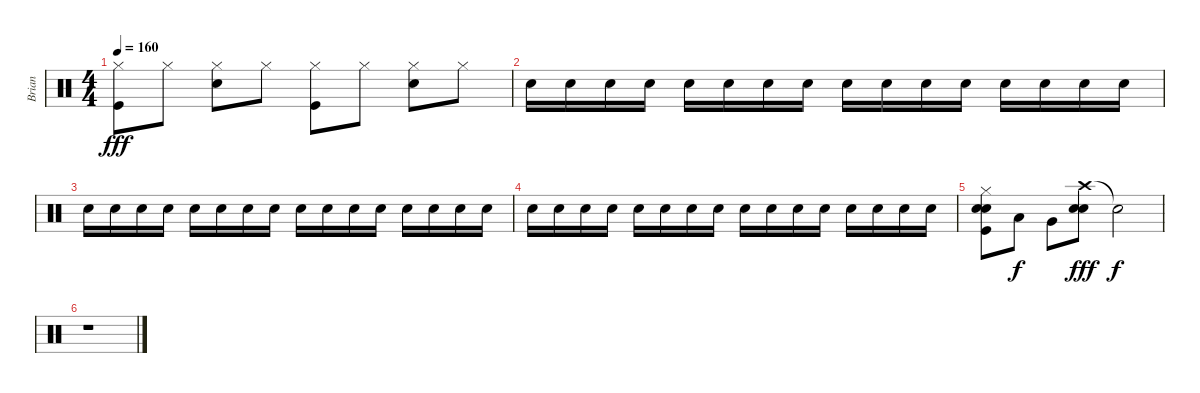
\track ("Brian" "Brian") {instrument percussion}
\staff {score}
\articulation defaults
\ts (4 4)
\tempo 160
\clef neutral
\ks c
("Hi-Hat (closed)" "Kick (hit)").8{dy fff} "Hi-Hat (closed)".8 ("Hi-Hat (closed)" "Electric Snare (hit)").8 "Hi-Hat (closed)".8 ("Hi-Hat (closed)" "Kick (hit)").8 "Hi-Hat (closed)".8 ("Hi-Hat (closed)" "Electric Snare (hit)").8 "Hi-Hat (closed)".8 |
"Snare (hit) 2".16 "Electric Snare (hit)".16 "Snare (hit) 2".16 "Electric Snare (hit)".16 "Snare (hit) 2".16 "Electric Snare (hit)".16 "Snare (hit) 2".16 "Electric Snare (hit)".16 "Snare (hit) 2".16 "Electric Snare (hit)".16 "Snare (hit) 2".16 "Electric Snare (hit)".16 "Snare (hit) 2".16 "Electric Snare (hit)".16 "Snare (hit) 2".16 "Electric Snare (hit)".16 |
"Snare (hit) 2".16 "Electric Snare (hit)".16 "Snare (hit) 2".16 "Electric Snare (hit)".16 "Snare (hit) 2".16 "Electric Snare (hit)".16 "Snare (hit) 2".16 "Electric Snare (hit)".16 "Snare (hit) 2".16 "Electric Snare (hit)".16 "Snare (hit) 2".16 "Electric Snare (hit)".16 "Snare (hit) 2".16 "Electric Snare (hit)".16 "Snare (hit) 2".16 "Electric Snare (hit)".16 |
"Snare (hit) 2".16 "Electric Snare (hit)".16 "Snare (hit) 2".16 "Electric Snare (hit)".16 "Snare (hit) 2".16 "Electric Snare (hit)".16 "Snare (hit) 2".16 "Electric Snare (hit)".16 "Snare (hit) 2".16 "Electric Snare (hit)".16 "Snare (hit) 2".16 "Electric Snare (hit)".16 "Snare (hit) 2".16 "Electric Snare (hit)".16 "Snare (hit) 2".16 "Electric Snare (hit)".16 |
("Hi-Hat (closed)" "Electric Snare (hit)" "Snare (hit) 2" "Kick (hit)").8 "Low Floor Tom (hit)".8{dy f} "Very Low Tom (hit)".8 ("Crash high (hit)" "Electric Snare (hit)" "Snare (hit) 2").8{dy fff} "Snare (hit)"{t}.2{dy f} |
r.1
